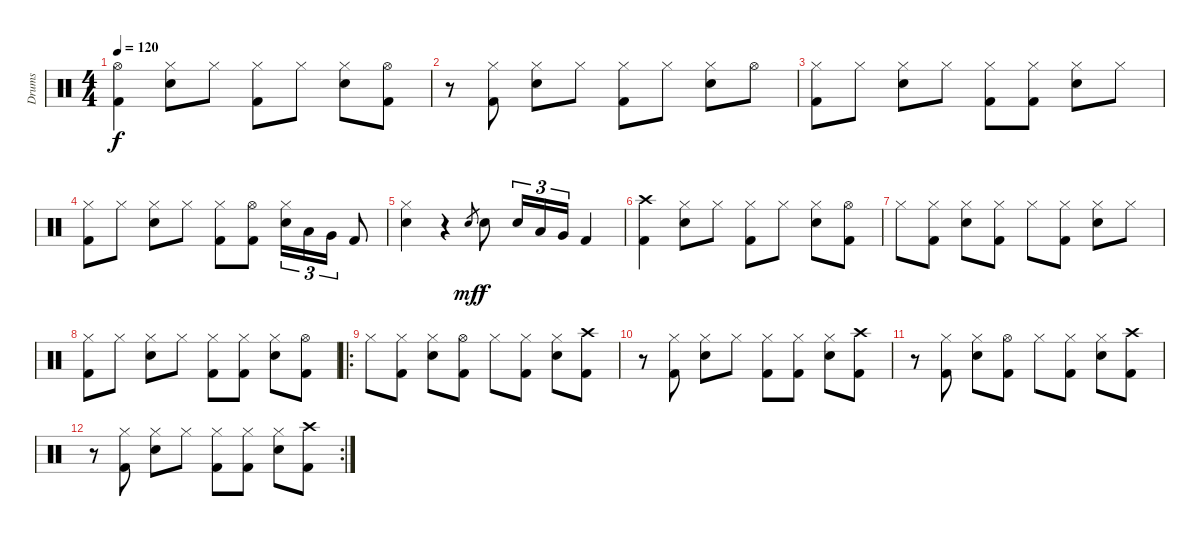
\track ("Drums" "Drums") {instrument percussion}
\staff {score}
\articulation defaults
\ts (4 4)
\tempo 120
\clef neutral
\ks c
("Hi-Hat (open)" "Kick (hit) 2").4{dy f} ("Hi-Hat (closed)" "Electric Snare (hit)").8 "Hi-Hat (closed)".8 ("Hi-Hat (closed)" "Kick (hit) 2").8 "Hi-Hat (closed)".8 ("Hi-Hat (closed)" "Electric Snare (hit)").8 ("Hi-Hat (open)" "Kick (hit) 2").8 |
r.8 ("Hi-Hat (closed)" "Kick (hit) 2").8 ("Hi-Hat (closed)" "Electric Snare (hit)").8 "Hi-Hat (closed)".8 ("Hi-Hat (closed)" "Kick (hit) 2").8 "Hi-Hat (closed)".8 ("Hi-Hat (closed)" "Electric Snare (hit)").8 "Hi-Hat (open)".8 |
("Hi-Hat (closed)" "Kick (hit) 2").8 "Hi-Hat (closed)".8 ("Hi-Hat (closed)" "Electric Snare (hit)").8 "Hi-Hat (closed)".8 ("Hi-Hat (closed)" "Kick (hit) 2").8 ("Hi-Hat (closed)" "Kick (hit) 2").8 ("Hi-Hat (closed)" "Electric Snare (hit)").8 "Hi-Hat (closed)".8 |
("Hi-Hat (closed)" "Kick (hit) 2").8 "Hi-Hat (closed)".8 ("Hi-Hat (closed)" "Electric Snare (hit)").8 "Hi-Hat (closed)".8 ("Hi-Hat (closed)" "Kick (hit) 2").8 ("Hi-Hat (open)" "Kick (hit) 2").8 ("Hi-Hat (closed)" "Electric Snare (hit)").16{tu (3 2)} "Low Tom (hit)".16{tu (3 2)} "Very Low Tom (hit)".16{tu (3 2)} "Kick (hit) 2".8 |
("Hi-Hat (closed)" "Electric Snare (hit)").4 r.4 "Electric Snare (hit)".8{gr dy mf} "Electric Snare (hit)".8{dy f} "Electric Snare (hit)".16{tu (3 2)} "Low Tom (hit)".16{tu (3 2)} "Very Low Tom (hit)".16{tu (3 2)} "Kick (hit) 2".4 |
("Crash high (hit)" "Kick (hit) 2").4 ("Hi-Hat (closed)" "Electric Snare (hit)").8 "Hi-Hat (closed)".8 ("Hi-Hat (closed)" "Kick (hit) 2").8 "Hi-Hat (closed)".8 ("Hi-Hat (closed)" "Electric Snare (hit)").8 ("Hi-Hat (open)" "Kick (hit) 2").8 |
"Hi-Hat (closed)".8 ("Hi-Hat (closed)" "Kick (hit) 2").8 ("Hi-Hat (closed)" "Electric Snare (hit)").8 ("Hi-Hat (closed)" "Kick (hit) 2").8 "Hi-Hat (closed)".8 ("Hi-Hat (closed)" "Kick (hit) 2").8 ("Hi-Hat (closed)" "Electric Snare (hit)").8 "Hi-Hat (closed)".8 |
("Hi-Hat (closed)" "Kick (hit) 2").8 "Hi-Hat (closed)".8 ("Hi-Hat (closed)" "Electric Snare (hit)").8 "Hi-Hat (closed)".8 ("Hi-Hat (closed)" "Kick (hit) 2").8 ("Hi-Hat (closed)" "Kick (hit) 2").8 ("Hi-Hat (closed)" "Electric Snare (hit)").8 ("Hi-Hat (open)" "Kick (hit) 2").8 |
\ro "Hi-Hat (closed)".8
("Hi-Hat (closed)" "Kick (hit) 2").8 ("Hi-Hat (closed)" "Electric Snare (hit)").8 ("Hi-Hat (open)" "Kick (hit) 2").8 "Hi-Hat (closed)".8 ("Hi-Hat (closed)" "Kick (hit) 2").8 ("Hi-Hat (closed)" "Electric Snare (hit)").8 ("Crash high (hit)" "Kick (hit) 2").8 |
r.8 ("Hi-Hat (closed)" "Kick (hit) 2").8 ("Hi-Hat (closed)" "Electric Snare (hit)").8 "Hi-Hat (closed)".8 ("Hi-Hat (closed)" "Kick (hit) 2").8 ("Hi-Hat (closed)" "Kick (hit) 2").8 ("Hi-Hat (closed)" "Electric Snare (hit)").8 ("Crash high (hit)" "Kick (hit) 2").8{volume 8} |
r.8 ("Hi-Hat (closed)" "Kick (hit) 2").8 ("Hi-Hat (closed)" "Electric Snare (hit)").8 ("Hi-Hat (open)" "Kick (hit) 2").8 "Hi-Hat (closed)".8 ("Hi-Hat (closed)" "Kick (hit) 2").8 ("Hi-Hat (closed)" "Electric Snare (hit)").8 ("Crash high (hit)" "Kick (hit) 2").8 |
\rc 2
r.8 ("Hi-Hat (closed)" "Kick (hit) 2").8 ("Hi-Hat (closed)" "Electric Snare (hit)").8 "Hi-Hat (closed)".8 ("Hi-Hat (closed)" "Kick (hit) 2").8 ("Hi-Hat (closed)" "Kick (hit) 2").8 ("Hi-Hat (closed)" "Electric Snare (hit)").8 ("Crash high (hit)" "Kick (hit) 2").8{volume 0}
